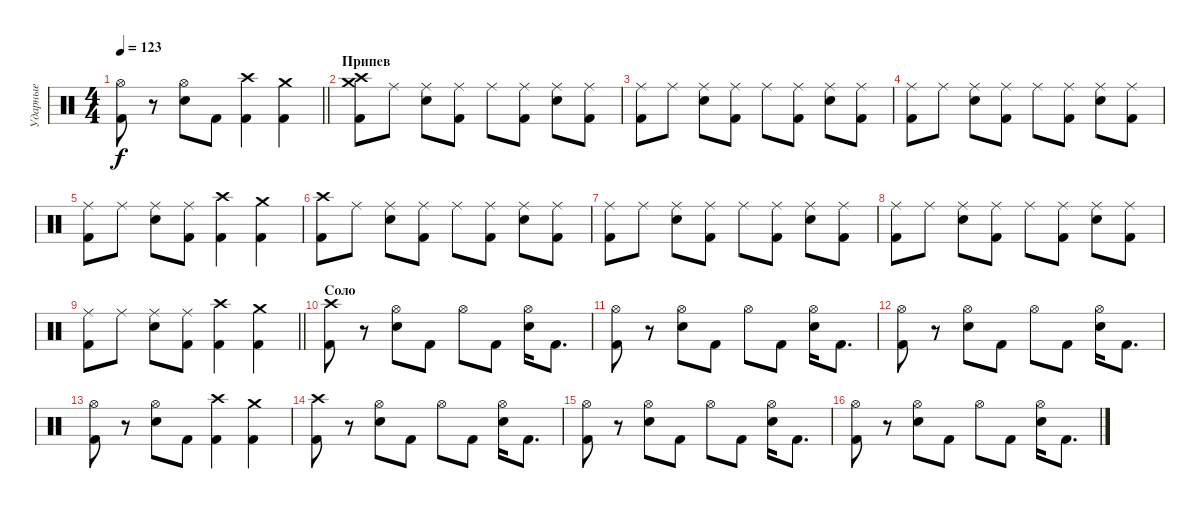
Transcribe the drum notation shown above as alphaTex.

\track ("Ударные" "Ударные") {instrument percussion}
\staff {score}
\articulation defaults
\ts (4 4)
\tempo 123
\clef neutral
\barLineRight lightlight
\ks c
("Hi-Hat (open)" "Kick (hit) 2").8{dy f} r.8 ("Hi-Hat (open)" "Electric Snare (hit)").8 "Kick (hit) 2".8 ("Kick (hit) 2" "Crash high (hit)").4 ("Kick (hit) 2" "Crash medium (hit)").4 |
\section ("" "Припев")
("Crash high (hit)" "Kick (hit) 2" "Crash medium (hit)").8 "Ride (middle)".8 ("Ride (middle)" "Electric Snare (hit)").8 ("Ride (middle)" "Kick (hit) 2").8 "Ride (middle)".8 ("Ride (middle)" "Kick (hit) 2").8 ("Ride (middle)" "Electric Snare (hit)").8 ("Ride (middle)" "Kick (hit) 2").8 |
("Ride (middle)" "Kick (hit) 2").8 "Ride (middle)".8 ("Ride (middle)" "Electric Snare (hit)").8 ("Ride (middle)" "Kick (hit) 2").8 "Ride (middle)".8 ("Ride (middle)" "Kick (hit) 2").8 ("Ride (middle)" "Electric Snare (hit)").8 ("Ride (middle)" "Kick (hit) 2").8 |
("Ride (middle)" "Kick (hit) 2").8 "Ride (middle)".8 ("Ride (middle)" "Electric Snare (hit)").8 ("Ride (middle)" "Kick (hit) 2").8 "Ride (middle)".8 ("Ride (middle)" "Kick (hit) 2").8 ("Ride (middle)" "Electric Snare (hit)").8 ("Ride (middle)" "Kick (hit) 2").8 |
("Ride (middle)" "Kick (hit) 2").8 "Ride (middle)".8 ("Ride (middle)" "Electric Snare (hit)").8 ("Ride (middle)" "Kick (hit) 2").8 ("Kick (hit) 2" "Crash high (hit)").4 ("Kick (hit) 2" "Crash medium (hit)").4 |
("Crash high (hit)" "Kick (hit) 2").8 "Ride (middle)".8 ("Ride (middle)" "Electric Snare (hit)").8 ("Ride (middle)" "Kick (hit) 2").8 "Ride (middle)".8 ("Ride (middle)" "Kick (hit) 2").8 ("Ride (middle)" "Electric Snare (hit)").8 ("Ride (middle)" "Kick (hit) 2").8 |
("Ride (middle)" "Kick (hit) 2").8 "Ride (middle)".8 ("Ride (middle)" "Electric Snare (hit)").8 ("Ride (middle)" "Kick (hit) 2").8 "Ride (middle)".8 ("Ride (middle)" "Kick (hit) 2").8 ("Ride (middle)" "Electric Snare (hit)").8 ("Ride (middle)" "Kick (hit) 2").8 |
("Ride (middle)" "Kick (hit) 2").8 "Ride (middle)".8 ("Ride (middle)" "Electric Snare (hit)").8 ("Ride (middle)" "Kick (hit) 2").8 "Ride (middle)".8 ("Ride (middle)" "Kick (hit) 2").8 ("Ride (middle)" "Electric Snare (hit)").8 ("Ride (middle)" "Kick (hit) 2").8 |
\barLineRight lightlight
("Ride (middle)" "Kick (hit) 2").8 "Ride (middle)".8 ("Ride (middle)" "Electric Snare (hit)").8 ("Ride (middle)" "Kick (hit) 2").8 ("Kick (hit) 2" "Crash high (hit)").4 ("Kick (hit) 2" "Crash medium (hit)").4 |
\section ("" "Соло")
("Crash high (hit)" "Kick (hit) 2").8 r.8 ("Hi-Hat (open)" "Electric Snare (hit)").8 "Kick (hit) 2".8 "Hi-Hat (open)".8 "Kick (hit) 2".8 ("Hi-Hat (open)" "Electric Snare (hit)").16 "Kick (hit) 2".8{d} |
("Hi-Hat (open)" "Kick (hit) 2").8 r.8 ("Hi-Hat (open)" "Electric Snare (hit)").8 "Kick (hit) 2".8 "Hi-Hat (open)".8 "Kick (hit) 2".8 ("Hi-Hat (open)" "Electric Snare (hit)").16 "Kick (hit) 2".8{d} |
("Hi-Hat (open)" "Kick (hit) 2").8 r.8 ("Hi-Hat (open)" "Electric Snare (hit)").8 "Kick (hit) 2".8 "Hi-Hat (open)".8 "Kick (hit) 2".8 ("Hi-Hat (open)" "Electric Snare (hit)").16 "Kick (hit) 2".8{d} |
("Hi-Hat (open)" "Kick (hit) 2").8 r.8 ("Hi-Hat (open)" "Electric Snare (hit)").8 "Kick (hit) 2".8 ("Kick (hit) 2" "Crash high (hit)").4 ("Kick (hit) 2" "Crash medium (hit)").4 |
("Crash high (hit)" "Kick (hit) 2").8 r.8 ("Hi-Hat (open)" "Electric Snare (hit)").8 "Kick (hit) 2".8 "Hi-Hat (open)".8 "Kick (hit) 2".8 ("Hi-Hat (open)" "Electric Snare (hit)").16 "Kick (hit) 2".8{d} |
("Hi-Hat (open)" "Kick (hit) 2").8 r.8 ("Hi-Hat (open)" "Electric Snare (hit)").8 "Kick (hit) 2".8 "Hi-Hat (open)".8 "Kick (hit) 2".8 ("Hi-Hat (open)" "Electric Snare (hit)").16 "Kick (hit) 2".8{d} |
("Hi-Hat (open)" "Kick (hit) 2").8 r.8 ("Hi-Hat (open)" "Electric Snare (hit)").8 "Kick (hit) 2".8 "Hi-Hat (open)".8 "Kick (hit) 2".8 ("Hi-Hat (open)" "Electric Snare (hit)").16 "Kick (hit) 2".8{d}
